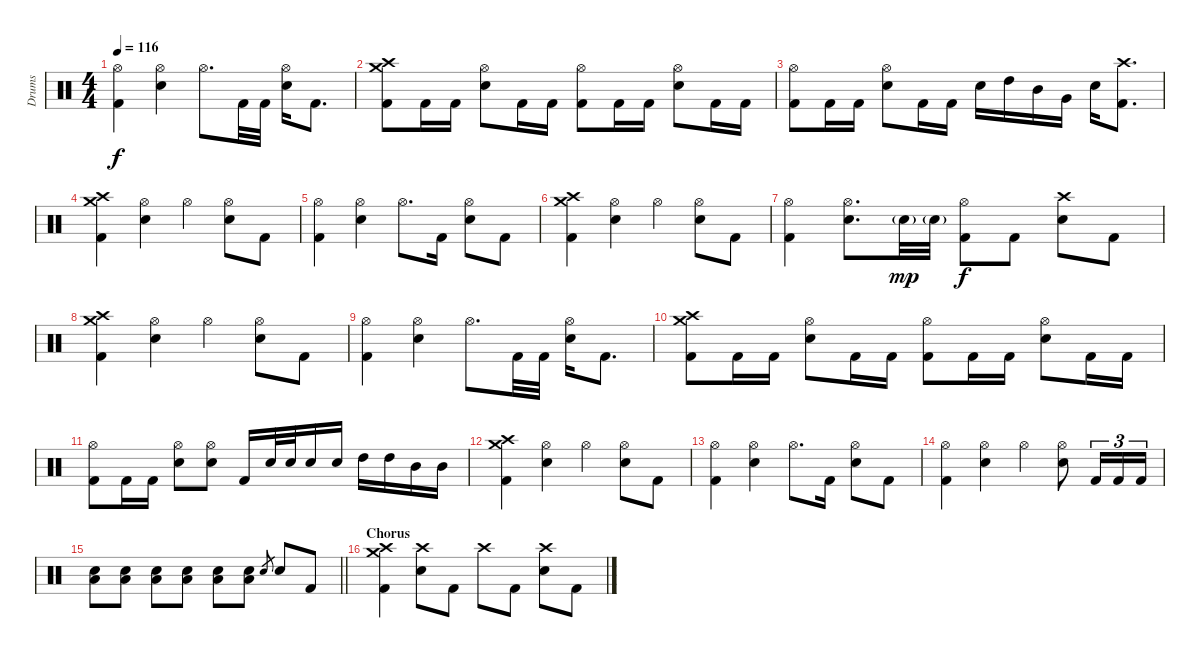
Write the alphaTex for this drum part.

\track ("Drums" "Drums") {instrument percussion}
\staff {score}
\articulation defaults
\ts (4 4)
\tempo 116
\clef neutral
\ks c
("Hi-Hat (open)" "Kick (hit) 2").4{dy f} ("Hi-Hat (open)" "Electric Snare (hit)").4 "Hi-Hat (open)".8{d} "Kick (hit) 2".32 "Kick (hit) 2".32 ("Hi-Hat (open)" "Electric Snare (hit)").16 "Kick (hit) 2".8{d} |
("Crash medium (hit)" "Crash high (hit)" "Kick (hit) 2").8 "Kick (hit) 2".16 "Kick (hit) 2".16 ("Hi-Hat (open)" "Electric Snare (hit)").8 "Kick (hit) 2".16 "Kick (hit) 2".16 ("Hi-Hat (open)" "Kick (hit) 2").8 "Kick (hit) 2".16 "Kick (hit) 2".16 ("Hi-Hat (open)" "Electric Snare (hit)").8 "Kick (hit) 2".16 "Kick (hit) 2".16 |
("Hi-Hat (open)" "Kick (hit) 2").8 "Kick (hit) 2".16 "Kick (hit) 2".16 ("Hi-Hat (open)" "Electric Snare (hit)").8 "Kick (hit) 2".16 "Kick (hit) 2".16 "Electric Snare (hit)".16 "High Tom (hit)".16 "Mid Tom (hit)".16 "Very Low Tom (hit)".16 "Electric Snare (hit)".16 ("Crash high (hit)" "Kick (hit) 2").8{d} |
("Crash medium (hit)" "Crash high (hit)" "Kick (hit) 2").4 ("Hi-Hat (open)" "Electric Snare (hit)").4 "Hi-Hat (open)".4 ("Hi-Hat (open)" "Electric Snare (hit)").8 "Kick (hit) 2".8 |
("Hi-Hat (open)" "Kick (hit) 2").4 ("Hi-Hat (open)" "Electric Snare (hit)").4 "Hi-Hat (open)".8{d} "Kick (hit) 2".16 ("Hi-Hat (open)" "Electric Snare (hit)").8 "Kick (hit) 2".8 |
("Crash medium (hit)" "Crash high (hit)" "Kick (hit) 2").4 ("Hi-Hat (open)" "Electric Snare (hit)").4 "Hi-Hat (open)".4 ("Hi-Hat (open)" "Electric Snare (hit)").8 "Kick (hit) 2".8 |
("Hi-Hat (open)" "Kick (hit) 2").4 ("Hi-Hat (open)" "Electric Snare (hit)").8{d} "Electric Snare (hit)"{g}.32{dy mp} "Electric Snare (hit)"{g}.32 ("Hi-Hat (open)" "Kick (hit) 2").8{dy f} "Kick (hit) 2".8 ("Crash high (hit)" "Electric Snare (hit)").8 "Kick (hit) 2".8 |
("Crash medium (hit)" "Crash high (hit)" "Kick (hit) 2").4 ("Hi-Hat (open)" "Electric Snare (hit)").4 "Hi-Hat (open)".4 ("Hi-Hat (open)" "Electric Snare (hit)").8 "Kick (hit) 2".8 |
("Hi-Hat (open)" "Kick (hit) 2").4 ("Hi-Hat (open)" "Electric Snare (hit)").4 "Hi-Hat (open)".8{d} "Kick (hit) 2".32 "Kick (hit) 2".32 ("Hi-Hat (open)" "Electric Snare (hit)").16 "Kick (hit) 2".8{d} |
("Crash medium (hit)" "Crash high (hit)" "Kick (hit) 2").8 "Kick (hit) 2".16 "Kick (hit) 2".16 ("Hi-Hat (open)" "Electric Snare (hit)").8 "Kick (hit) 2".16 "Kick (hit) 2".16 ("Hi-Hat (open)" "Kick (hit) 2").8 "Kick (hit) 2".16 "Kick (hit) 2".16 ("Hi-Hat (open)" "Electric Snare (hit)").8 "Kick (hit) 2".16 "Kick (hit) 2".16 |
("Hi-Hat (open)" "Kick (hit) 2").8 "Kick (hit) 2".16 "Kick (hit) 2".16 ("Hi-Hat (open)" "Electric Snare (hit)").8 ("Hi-Hat (open)" "Electric Snare (hit)").8 "Kick (hit) 2".16 "Electric Snare (hit)".32 "Electric Snare (hit)".32 "Electric Snare (hit)".16 "Electric Snare (hit)".16 "High Tom (hit)".16 "High Tom (hit)".16 "Mid Tom (hit)".16 "Mid Tom (hit)".16 |
("Crash medium (hit)" "Crash high (hit)" "Kick (hit) 2").4 ("Hi-Hat (open)" "Electric Snare (hit)").4 "Hi-Hat (open)".4 ("Hi-Hat (open)" "Electric Snare (hit)").8 "Kick (hit) 2".8 |
("Hi-Hat (open)" "Kick (hit) 2").4 ("Hi-Hat (open)" "Electric Snare (hit)").4 "Hi-Hat (open)".8{d} "Kick (hit) 2".16 ("Hi-Hat (open)" "Electric Snare (hit)").8 "Kick (hit) 2".8 |
("Hi-Hat (open)" "Kick (hit) 2").4 ("Hi-Hat (open)" "Electric Snare (hit)").4 "Hi-Hat (open)".4 ("Hi-Hat (open)" "Electric Snare (hit)").8 "Kick (hit) 2".16{tu (3 2)} "Kick (hit) 2".16{tu (3 2)} "Kick (hit) 2".16{tu (3 2)} |
\barLineRight lightlight
("Electric Snare (hit)" "Low Floor Tom (hit)").8 ("Electric Snare (hit)" "Low Floor Tom (hit)").8 ("Electric Snare (hit)" "Low Floor Tom (hit)").8 ("Electric Snare (hit)" "Low Floor Tom (hit)").8 ("Electric Snare (hit)" "Low Floor Tom (hit)").8 ("Electric Snare (hit)" "Low Floor Tom (hit)").8 "Electric Snare (hit)".8{gr} "Electric Snare (hit)".8 "Kick (hit) 2".8 |
\section ("" "Chorus")
("Crash medium (hit)" "Crash high (hit)" "Kick (hit) 2").4 ("Crash high (hit)" "Electric Snare (hit)").8 "Kick (hit) 2".8 "Crash high (hit)".8 "Kick (hit) 2".8 ("Crash high (hit)" "Electric Snare (hit)").8 "Kick (hit) 2".8
